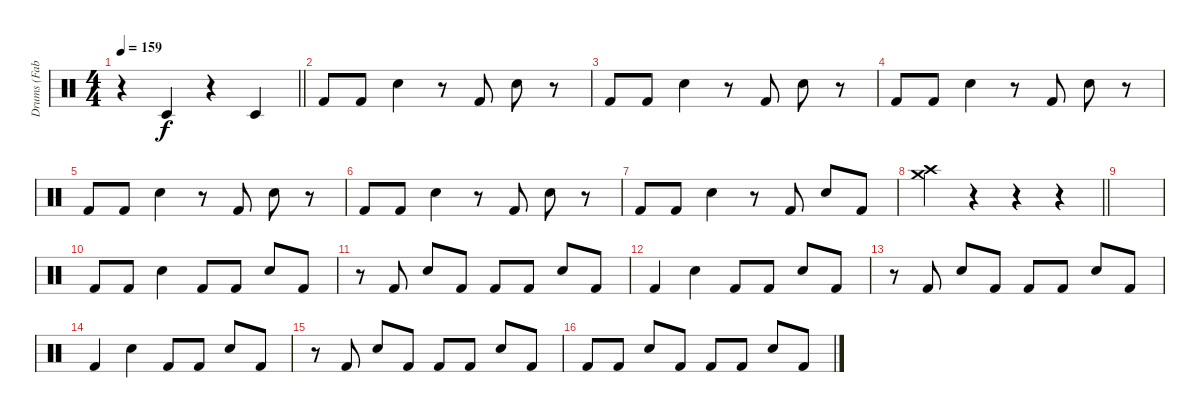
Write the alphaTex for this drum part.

\track ("Drums (Fabio)" "Drums (Fab") {instrument percussion}
\staff {score}
\articulation defaults
\ts (4 4)
\tempo 159
\clef neutral
\barLineRight lightlight
\ks c
r.4{dy f} "Timbale low (hit)".4 r.4 "Timbale low (hit)".4 |
"Kick (hit) 2".8 "Kick (hit) 2".8 "Snare (hit) 2".4 r.8 "Kick (hit) 2".8 "Snare (hit) 2".8 r.8 |
"Kick (hit) 2".8 "Kick (hit) 2".8 "Snare (hit) 2".4 r.8 "Kick (hit) 2".8 "Snare (hit) 2".8 r.8 |
"Kick (hit) 2".8 "Kick (hit) 2".8 "Snare (hit) 2".4 r.8 "Kick (hit) 2".8 "Snare (hit) 2".8 r.8 |
"Kick (hit) 2".8 "Kick (hit) 2".8 "Snare (hit) 2".4 r.8 "Kick (hit) 2".8 "Snare (hit) 2".8 r.8 |
"Kick (hit) 2".8 "Kick (hit) 2".8 "Snare (hit) 2".4 r.8 "Kick (hit) 2".8 "Snare (hit) 2".8 r.8 |
"Kick (hit) 2".8 "Kick (hit) 2".8 "Snare (hit) 2".4 r.8 "Kick (hit) 2".8 "Snare (hit) 2".8 "Kick (hit) 2".8 |
\barLineRight lightlight
("Crash medium (hit)" "Crash high (hit)").4 r.4 r.4 r.4 |
|
"Kick (hit) 2".8 "Kick (hit) 2".8 "Snare (hit) 2".4 "Kick (hit) 2".8 "Kick (hit) 2".8 "Snare (hit) 2".8 "Kick (hit) 2".8 |
r.8 "Kick (hit) 2".8 "Snare (hit) 2".8 "Kick (hit) 2".8 "Kick (hit) 2".8 "Kick (hit) 2".8 "Snare (hit) 2".8 "Kick (hit) 2".8 |
"Kick (hit) 2".4 "Snare (hit) 2".4 "Kick (hit) 2".8 "Kick (hit) 2".8 "Snare (hit) 2".8 "Kick (hit) 2".8 |
r.8 "Kick (hit) 2".8 "Snare (hit) 2".8 "Kick (hit) 2".8 "Kick (hit) 2".8 "Kick (hit) 2".8 "Snare (hit) 2".8 "Kick (hit) 2".8 |
"Kick (hit) 2".4 "Snare (hit) 2".4 "Kick (hit) 2".8 "Kick (hit) 2".8 "Snare (hit) 2".8 "Kick (hit) 2".8 |
r.8 "Kick (hit) 2".8 "Snare (hit) 2".8 "Kick (hit) 2".8 "Kick (hit) 2".8 "Kick (hit) 2".8 "Snare (hit) 2".8 "Kick (hit) 2".8 |
"Kick (hit) 2".8 "Kick (hit) 2".8 "Snare (hit) 2".8 "Kick (hit) 2".8 "Kick (hit) 2".8 "Kick (hit) 2".8 "Snare (hit) 2".8 "Kick (hit) 2".8
